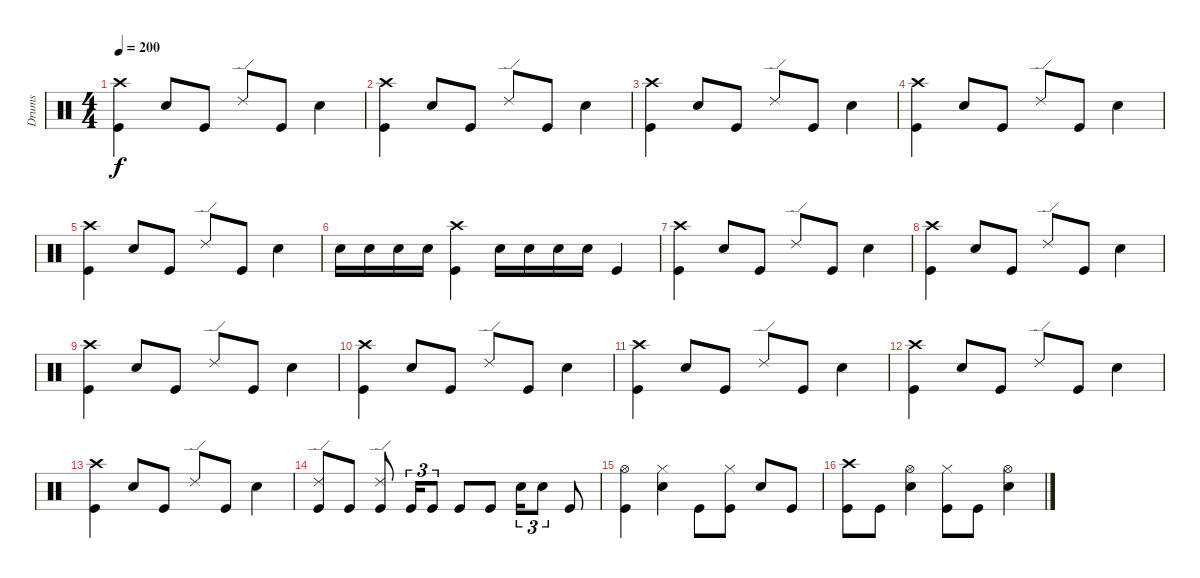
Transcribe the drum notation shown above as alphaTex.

\track ("Drums" "Drums") {instrument percussion}
\staff {score}
\articulation defaults
\ts (4 4)
\tempo 200
\clef neutral
\ks c
("Crash high (hit)" "Kick (hit)").4{dy f} "Snare (hit) 2".8 "Kick (hit)".8 "Ride (edge) 2".8 "Kick (hit)".8 "Snare (hit) 2".4 |
("Crash high (hit)" "Kick (hit)").4 "Snare (hit) 2".8 "Kick (hit)".8 "Ride (edge) 2".8 "Kick (hit)".8 "Snare (hit) 2".4 |
("Crash high (hit)" "Kick (hit)").4 "Snare (hit) 2".8 "Kick (hit)".8 "Ride (edge) 2".8 "Kick (hit)".8 "Snare (hit) 2".4 |
("Crash high (hit)" "Kick (hit)").4 "Snare (hit) 2".8 "Kick (hit)".8 "Ride (edge) 2".8 "Kick (hit)".8 "Snare (hit) 2".4 |
("Crash high (hit)" "Kick (hit)").4 "Snare (hit) 2".8 "Kick (hit)".8 "Ride (edge) 2".8 "Kick (hit)".8 "Snare (hit) 2".4 |
"Snare (hit) 2".16 "Snare (hit) 2".16 "Snare (hit) 2".16 "Snare (hit) 2".16 ("Crash high (hit)" "Kick (hit)").4 "Snare (hit) 2".16 "Snare (hit) 2".16 "Snare (hit) 2".16 "Snare (hit) 2".16 "Kick (hit)".4 |
("Crash high (hit)" "Kick (hit)").4 "Snare (hit) 2".8 "Kick (hit)".8 "Ride (edge) 2".8 "Kick (hit)".8 "Snare (hit) 2".4 |
("Crash high (hit)" "Kick (hit)").4 "Snare (hit) 2".8 "Kick (hit)".8 "Ride (edge) 2".8 "Kick (hit)".8 "Snare (hit) 2".4 |
("Crash high (hit)" "Kick (hit)").4 "Snare (hit) 2".8 "Kick (hit)".8 "Ride (edge) 2".8 "Kick (hit)".8 "Snare (hit) 2".4 |
("Crash high (hit)" "Kick (hit)").4 "Snare (hit) 2".8 "Kick (hit)".8 "Ride (edge) 2".8 "Kick (hit)".8 "Snare (hit) 2".4 |
("Crash high (hit)" "Kick (hit)").4 "Snare (hit) 2".8 "Kick (hit)".8 "Ride (edge) 2".8 "Kick (hit)".8 "Snare (hit) 2".4 |
("Crash high (hit)" "Kick (hit)").4 "Snare (hit) 2".8 "Kick (hit)".8 "Ride (edge) 2".8 "Kick (hit)".8 "Snare (hit) 2".4 |
("Crash high (hit)" "Kick (hit)").4 "Snare (hit) 2".8 "Kick (hit)".8 "Ride (edge) 2".8 "Kick (hit)".8 "Snare (hit) 2".4 |
("Ride (edge) 2" "Kick (hit)").8 "Kick (hit)".8 ("Ride (edge) 2" "Kick (hit)").8 "Kick (hit)".16{tu (3 2)} "Kick (hit)".8{tu (3 2)} "Kick (hit)".8 "Kick (hit)".8 "Snare (hit) 2".16{tu (3 2)} "Snare (hit) 2".8{tu (3 2)} "Kick (hit)".8 |
("Hi-Hat (open)" "Kick (hit)").4 ("Hi-Hat (closed)" "Snare (hit) 2").4 "Kick (hit)".8 ("Hi-Hat (closed)" "Kick (hit)").8 "Snare (hit) 2".8 "Kick (hit)".8 |
("Crash high (hit)" "Kick (hit)").8 "Kick (hit)".8 ("Hi-Hat (open)" "Snare (hit) 2").4 ("Hi-Hat (closed)" "Kick (hit)").8 "Kick (hit)".8 ("Hi-Hat (open)" "Snare (hit) 2").4
